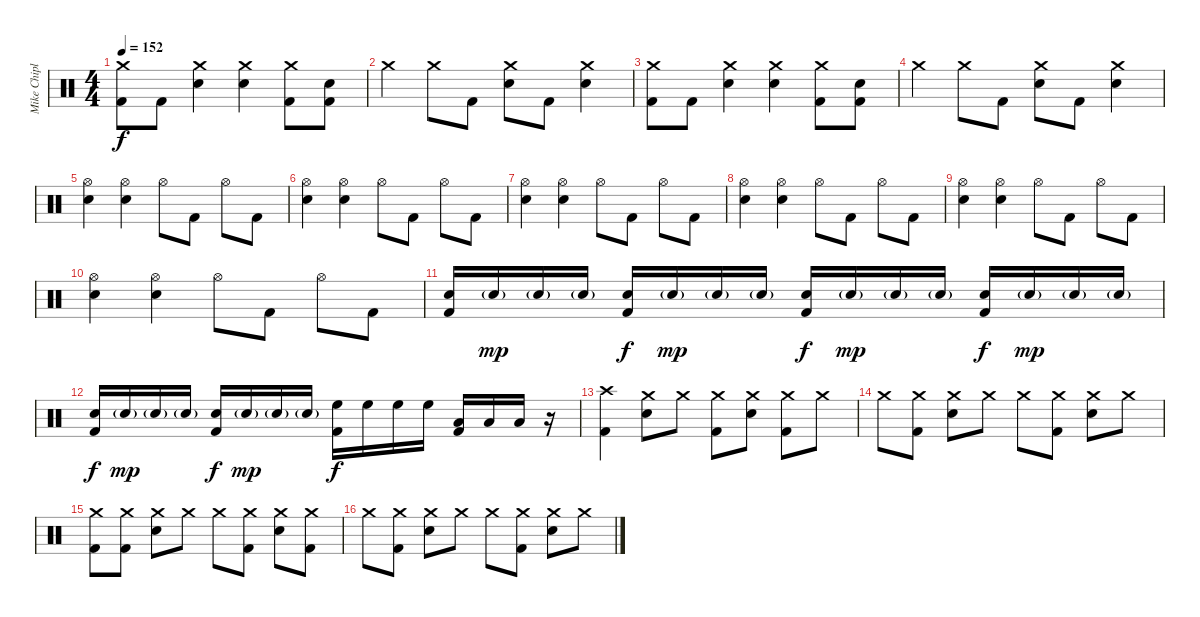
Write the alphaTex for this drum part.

\track ("Mike Chiplin" "Mike Chipl") {instrument percussion}
\staff {score}
\articulation defaults
\ts (4 4)
\tempo 152
\clef neutral
\ks c
("Crash medium (hit)" "Kick (hit) 2").8{dy f} "Kick (hit) 2".8 ("Crash medium (hit)" "Snare (hit) 2").4 ("Crash medium (hit)" "Snare (hit) 2").4 ("Crash medium (hit)" "Kick (hit) 2").8 ("Snare (hit) 2" "Kick (hit) 2").8 |
"Crash medium (hit)".4 "Crash medium (hit)".8 "Kick (hit) 2".8 ("Crash medium (hit)" "Snare (hit) 2").8 "Kick (hit) 2".8 ("Crash medium (hit)" "Snare (hit) 2").4 |
("Crash medium (hit)" "Kick (hit) 2").8 "Kick (hit) 2".8 ("Crash medium (hit)" "Snare (hit) 2").4 ("Crash medium (hit)" "Snare (hit) 2").4 ("Crash medium (hit)" "Kick (hit) 2").8 ("Snare (hit) 2" "Kick (hit) 2").8 |
"Crash medium (hit)".4 "Crash medium (hit)".8 "Kick (hit) 2".8 ("Crash medium (hit)" "Snare (hit) 2").8 "Kick (hit) 2".8 ("Crash medium (hit)" "Snare (hit) 2").4 |
("Hi-Hat (open)" "Snare (hit) 2").4 ("Hi-Hat (open)" "Snare (hit) 2").4 "Hi-Hat (open)".8 "Kick (hit) 2".8 "Hi-Hat (open)".8 "Kick (hit) 2".8 |
("Hi-Hat (open)" "Snare (hit) 2").4 ("Hi-Hat (open)" "Snare (hit) 2").4 "Hi-Hat (open)".8 "Kick (hit) 2".8 "Hi-Hat (open)".8 "Kick (hit) 2".8 |
("Hi-Hat (open)" "Snare (hit) 2").4 ("Hi-Hat (open)" "Snare (hit) 2").4 "Hi-Hat (open)".8 "Kick (hit) 2".8 "Hi-Hat (open)".8 "Kick (hit) 2".8 |
("Hi-Hat (open)" "Snare (hit) 2").4 ("Hi-Hat (open)" "Snare (hit) 2").4 "Hi-Hat (open)".8 "Kick (hit) 2".8 "Hi-Hat (open)".8 "Kick (hit) 2".8 |
("Hi-Hat (open)" "Snare (hit) 2").4 ("Hi-Hat (open)" "Snare (hit) 2").4 "Hi-Hat (open)".8 "Kick (hit) 2".8 "Hi-Hat (open)".8 "Kick (hit) 2".8 |
("Hi-Hat (open)" "Snare (hit) 2").4 ("Hi-Hat (open)" "Snare (hit) 2").4 "Hi-Hat (open)".8 "Kick (hit) 2".8 "Hi-Hat (open)".8 "Kick (hit) 2".8 |
("Snare (hit) 2" "Kick (hit) 2").16 "Snare (hit) 2"{g}.16{dy mp} "Snare (hit) 2"{g}.16 "Snare (hit) 2"{g}.16 ("Snare (hit) 2" "Kick (hit) 2").16{dy f} "Snare (hit) 2"{g}.16{dy mp} "Snare (hit) 2"{g}.16 "Snare (hit) 2"{g}.16 ("Snare (hit) 2" "Kick (hit) 2").16{dy f} "Snare (hit) 2"{g}.16{dy mp} "Snare (hit) 2"{g}.16 "Snare (hit) 2"{g}.16 ("Snare (hit) 2" "Kick (hit) 2").16{dy f} "Snare (hit) 2"{g}.16{dy mp} "Snare (hit) 2"{g}.16 "Snare (hit) 2"{g}.16 |
("Snare (hit) 2" "Kick (hit) 2").16{dy f} "Snare (hit) 2"{g}.16{dy mp} "Snare (hit) 2"{g}.16 "Snare (hit) 2"{g}.16 ("Snare (hit) 2" "Kick (hit) 2").16{dy f} "Snare (hit) 2"{g}.16{dy mp} "Snare (hit) 2"{g}.16 "Snare (hit) 2"{g}.16 ("High Floor Tom (hit)" "Kick (hit) 2").16{dy f} "High Floor Tom (hit)".16 "High Floor Tom (hit)".16 "High Floor Tom (hit)".16 ("Low Floor Tom (hit)" "Kick (hit) 2").16 "Low Floor Tom (hit)".16 "Low Floor Tom (hit)".16 r.16 |
("Crash high (hit)" "Kick (hit) 2").4 ("Crash medium (hit)" "Snare (hit) 2").8 "Crash medium (hit)".8 ("Crash medium (hit)" "Kick (hit) 2").8 ("Crash medium (hit)" "Snare (hit) 2").8 ("Crash medium (hit)" "Kick (hit) 2").8 "Crash medium (hit)".8 |
"Crash medium (hit)".8 ("Crash medium (hit)" "Kick (hit) 2").8 ("Crash medium (hit)" "Snare (hit) 2").8 "Crash medium (hit)".8 "Crash medium (hit)".8 ("Crash medium (hit)" "Kick (hit) 2").8 ("Crash medium (hit)" "Snare (hit) 2").8 "Crash medium (hit)".8 |
("Crash medium (hit)" "Kick (hit) 2").8 ("Crash medium (hit)" "Kick (hit) 2").8 ("Crash medium (hit)" "Snare (hit) 2").8 "Crash medium (hit)".8 "Crash medium (hit)".8 ("Crash medium (hit)" "Kick (hit) 2").8 ("Crash medium (hit)" "Snare (hit) 2").8 ("Crash medium (hit)" "Kick (hit) 2").8 |
"Crash medium (hit)".8 ("Crash medium (hit)" "Kick (hit) 2").8 ("Crash medium (hit)" "Snare (hit) 2").8 "Crash medium (hit)".8 "Crash medium (hit)".8 ("Crash medium (hit)" "Kick (hit) 2").8 ("Crash medium (hit)" "Snare (hit) 2").8 "Crash medium (hit)".8
